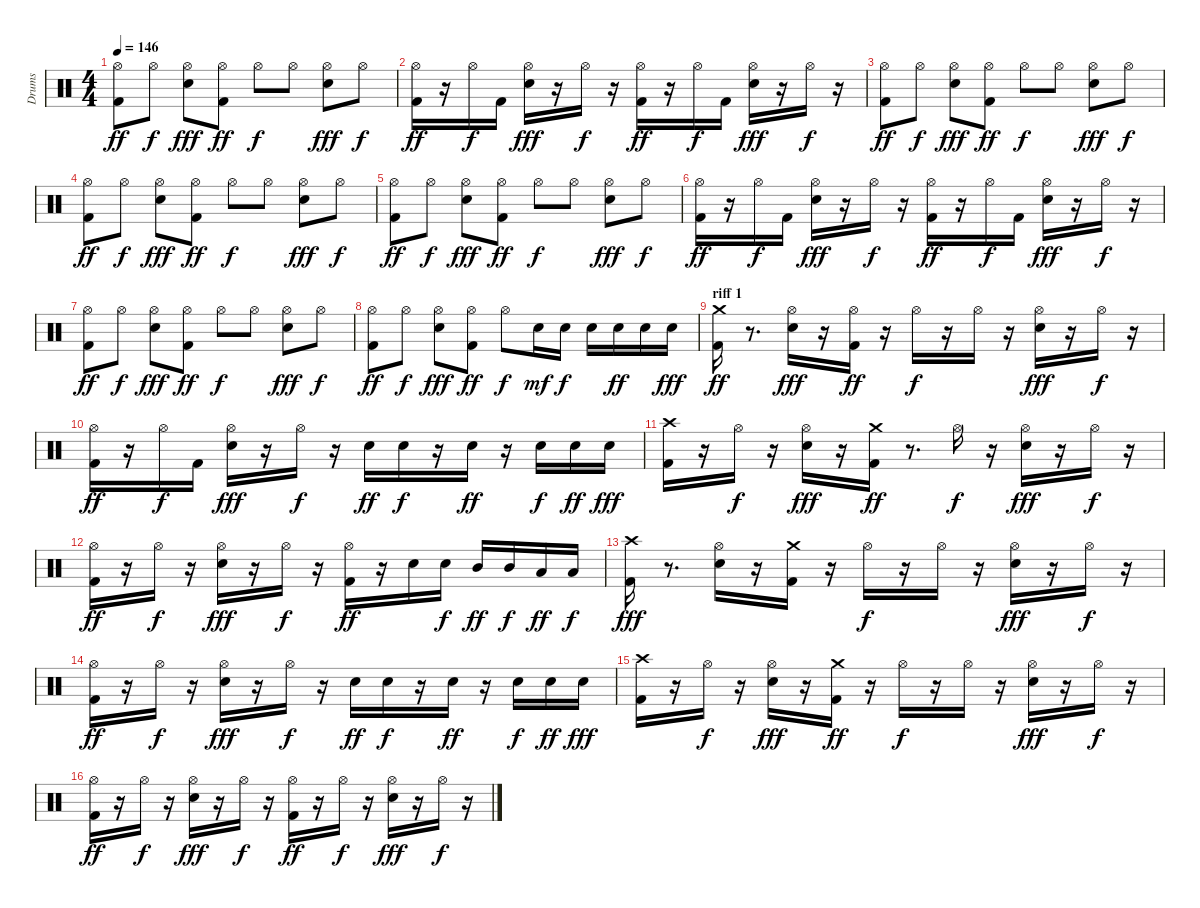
\track ("Drums" "Drums") {instrument percussion}
\staff {score}
\articulation defaults
\ts (4 4)
\tempo 146
\clef neutral
\ks c
("Kick (hit) 2" "Hi-Hat (open)").8{dy ff} "Hi-Hat (open)".8{dy f} ("Snare (hit) 2" "Hi-Hat (open)").8{dy fff} ("Kick (hit) 2" "Hi-Hat (open)").8{dy ff} "Hi-Hat (open)".8{dy f} "Hi-Hat (open)".8 ("Snare (hit) 2" "Hi-Hat (open)").8{dy fff} "Hi-Hat (open)".8{dy f} |
("Kick (hit) 2" "Hi-Hat (open)").16{dy ff} r.16 "Hi-Hat (open)".16{dy f} "Kick (hit) 2".16 ("Snare (hit) 2" "Hi-Hat (open)").16{dy fff} r.16 "Hi-Hat (open)".16{dy f} r.16 ("Kick (hit) 2" "Hi-Hat (open)").16{dy ff} r.16 "Hi-Hat (open)".16{dy f} "Kick (hit) 2".16 ("Snare (hit) 2" "Hi-Hat (open)").16{dy fff} r.16 "Hi-Hat (open)".16{dy f} r.16 |
("Kick (hit) 2" "Hi-Hat (open)").8{dy ff} "Hi-Hat (open)".8{dy f} ("Snare (hit) 2" "Hi-Hat (open)").8{dy fff} ("Kick (hit) 2" "Hi-Hat (open)").8{dy ff} "Hi-Hat (open)".8{dy f} "Hi-Hat (open)".8 ("Snare (hit) 2" "Hi-Hat (open)").8{dy fff} "Hi-Hat (open)".8{dy f} |
("Kick (hit) 2" "Hi-Hat (open)").8{dy ff} "Hi-Hat (open)".8{dy f} ("Snare (hit) 2" "Hi-Hat (open)").8{dy fff} ("Kick (hit) 2" "Hi-Hat (open)").8{dy ff} "Hi-Hat (open)".8{dy f} "Hi-Hat (open)".8 ("Snare (hit) 2" "Hi-Hat (open)").8{dy fff} "Hi-Hat (open)".8{dy f} |
("Kick (hit) 2" "Hi-Hat (open)").8{dy ff} "Hi-Hat (open)".8{dy f} ("Snare (hit) 2" "Hi-Hat (open)").8{dy fff} ("Kick (hit) 2" "Hi-Hat (open)").8{dy ff} "Hi-Hat (open)".8{dy f} "Hi-Hat (open)".8 ("Snare (hit) 2" "Hi-Hat (open)").8{dy fff} "Hi-Hat (open)".8{dy f} |
("Kick (hit) 2" "Hi-Hat (open)").16{dy ff} r.16 "Hi-Hat (open)".16{dy f} "Kick (hit) 2".16 ("Snare (hit) 2" "Hi-Hat (open)").16{dy fff} r.16 "Hi-Hat (open)".16{dy f} r.16 ("Kick (hit) 2" "Hi-Hat (open)").16{dy ff} r.16 "Hi-Hat (open)".16{dy f} "Kick (hit) 2".16 ("Snare (hit) 2" "Hi-Hat (open)").16{dy fff} r.16 "Hi-Hat (open)".16{dy f} r.16 |
("Kick (hit) 2" "Hi-Hat (open)").8{dy ff} "Hi-Hat (open)".8{dy f} ("Snare (hit) 2" "Hi-Hat (open)").8{dy fff} ("Kick (hit) 2" "Hi-Hat (open)").8{dy ff} "Hi-Hat (open)".8{dy f} "Hi-Hat (open)".8 ("Snare (hit) 2" "Hi-Hat (open)").8{dy fff} "Hi-Hat (open)".8{dy f} |
("Kick (hit) 2" "Hi-Hat (open)").8{dy ff} "Hi-Hat (open)".8{dy f} ("Snare (hit) 2" "Hi-Hat (open)").8{dy fff} ("Kick (hit) 2" "Hi-Hat (open)").8{dy ff} "Hi-Hat (open)".8{dy f} "Snare (hit) 2".16{dy mf} "Snare (hit) 2".16{dy f} "Snare (hit) 2".16 "Snare (hit) 2".16{dy ff} "Snare (hit) 2".16 "Snare (hit) 2".16{dy fff} |
\section ("" "riff 1")
("Crash medium (hit)" "Kick (hit) 2").16{dy ff} r.8{d} ("Snare (hit) 2" "Hi-Hat (open)").16{dy fff} r.16 ("Kick (hit) 2" "Hi-Hat (open)").16{dy ff} r.16 "Hi-Hat (open)".16{dy f} r.16 "Hi-Hat (open)".16 r.16 ("Snare (hit) 2" "Hi-Hat (open)").16{dy fff} r.16 "Hi-Hat (open)".16{dy f} r.16 |
("Kick (hit) 2" "Hi-Hat (open)").16{dy ff} r.16 "Hi-Hat (open)".16{dy f} "Kick (hit) 2".16 ("Snare (hit) 2" "Hi-Hat (open)").16{dy fff} r.16 "Hi-Hat (open)".16{dy f} r.16 "Snare (hit) 2".16{dy ff} "Snare (hit) 2".16{dy f} r.16 "Snare (hit) 2".16{dy ff} r.16 "Snare (hit) 2".16{dy f} "Snare (hit) 2".16{dy ff} "Snare (hit) 2".16{dy fff} |
("Kick (hit) 2" "Crash high (hit)").16 r.16 "Hi-Hat (open)".16{dy f} r.16 ("Snare (hit) 2" "Hi-Hat (open)").16{dy fff} r.16 ("Kick (hit) 2" "Crash medium (hit)").16{dy ff} r.8{d} "Hi-Hat (open)".16{dy f} r.16 ("Snare (hit) 2" "Hi-Hat (open)").16{dy fff} r.16 "Hi-Hat (open)".16{dy f} r.16 |
("Kick (hit) 2" "Hi-Hat (open)").16{dy ff} r.16 "Hi-Hat (open)".16{dy f} r.16 ("Snare (hit) 2" "Hi-Hat (open)").16{dy fff} r.16 "Hi-Hat (open)".16{dy f} r.16 ("Kick (hit) 2" "Hi-Hat (open)").16{dy ff} r.16 "Snare (hit) 2".16 "Snare (hit) 2".16{dy f} "Mid Tom (hit)".16{dy ff} "Mid Tom (hit)".16{dy f} "Low Tom (hit)".16{dy ff} "Low Tom (hit)".16{dy f} |
("Kick (hit) 2" "Crash high (hit)").16{dy fff} r.8{d} ("Snare (hit) 2" "Hi-Hat (open)").16 r.16 ("Kick (hit) 2" "Crash medium (hit)").16 r.16 "Hi-Hat (open)".16{dy f} r.16 "Hi-Hat (open)".16 r.16 ("Snare (hit) 2" "Hi-Hat (open)").16{dy fff} r.16 "Hi-Hat (open)".16{dy f} r.16 |
("Kick (hit) 2" "Hi-Hat (open)").16{dy ff} r.16 "Hi-Hat (open)".16{dy f} r.16 ("Snare (hit) 2" "Hi-Hat (open)").16{dy fff} r.16 "Hi-Hat (open)".16{dy f} r.16 "Snare (hit) 2".16{dy ff} "Snare (hit) 2".16{dy f} r.16 "Snare (hit) 2".16{dy ff} r.16 "Snare (hit) 2".16{dy f} "Snare (hit) 2".16{dy ff} "Snare (hit) 2".16{dy fff} |
("Kick (hit) 2" "Crash high (hit)").16 r.16 "Hi-Hat (open)".16{dy f} r.16 ("Snare (hit) 2" "Hi-Hat (open)").16{dy fff} r.16 ("Kick (hit) 2" "Crash medium (hit)").16{dy ff} r.16 "Hi-Hat (open)".16{dy f} r.16 "Hi-Hat (open)".16 r.16 ("Snare (hit) 2" "Hi-Hat (open)").16{dy fff} r.16 "Hi-Hat (open)".16{dy f} r.16 |
("Kick (hit) 2" "Hi-Hat (open)").16{dy ff} r.16 "Hi-Hat (open)".16{dy f} r.16 ("Snare (hit) 2" "Hi-Hat (open)").16{dy fff} r.16 "Hi-Hat (open)".16{dy f} r.16 ("Kick (hit) 2" "Hi-Hat (open)").16{dy ff} r.16 "Hi-Hat (open)".16{dy f} r.16 ("Snare (hit) 2" "Hi-Hat (open)").16{dy fff} r.16 "Hi-Hat (open)".16{dy f} r.16
